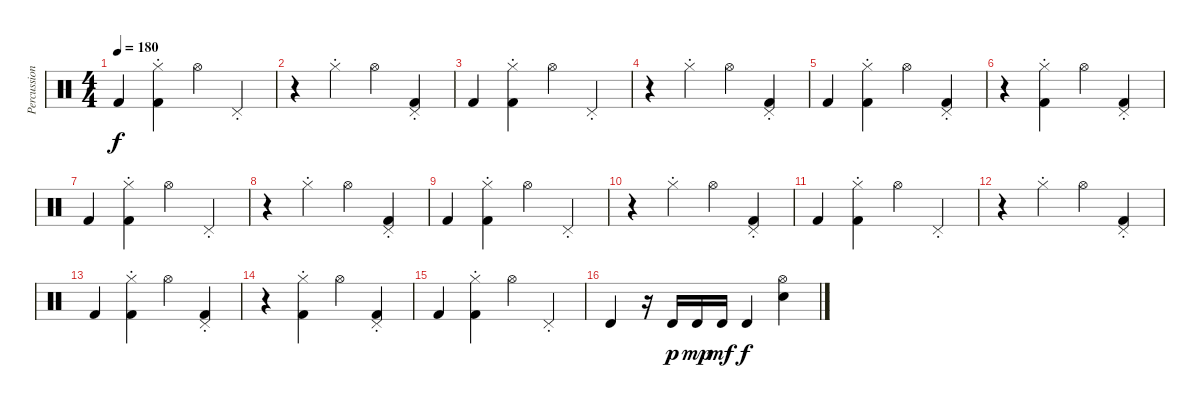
\track ("Percussion" "Percussion") {instrument percussion}
\staff {score}
\articulation defaults
\ts (4 4)
\tempo 180
\clef neutral
\ks c "Kick (hit) 2".4{dy f}
("Hi-Hat (closed)"{st} "Kick (hit) 2").4 "Hi-Hat (open)".4 "Pedal Hi-Hat (hit)"{st}.4 |
r.4 "Hi-Hat (closed)"{st}.4 "Hi-Hat (open)".4 ("Pedal Hi-Hat (hit)"{st} "Kick (hit) 2").4 |
"Kick (hit) 2".4 ("Hi-Hat (closed)"{st} "Kick (hit) 2").4 "Hi-Hat (open)".4 "Pedal Hi-Hat (hit)"{st}.4 |
r.4 "Hi-Hat (closed)"{st}.4 "Hi-Hat (open)".4 ("Pedal Hi-Hat (hit)"{st} "Kick (hit) 2").4 |
"Kick (hit) 2".4 ("Hi-Hat (closed)"{st} "Kick (hit) 2").4 "Hi-Hat (open)".4 ("Pedal Hi-Hat (hit)"{st} "Kick (hit) 2").4 |
r.4 ("Hi-Hat (closed)"{st} "Kick (hit) 2").4 "Hi-Hat (open)".4 ("Pedal Hi-Hat (hit)"{st} "Kick (hit) 2").4 |
"Kick (hit) 2".4 ("Hi-Hat (closed)"{st} "Kick (hit) 2").4 "Hi-Hat (open)".4 "Pedal Hi-Hat (hit)"{st}.4 |
r.4 "Hi-Hat (closed)"{st}.4 "Hi-Hat (open)".4 ("Pedal Hi-Hat (hit)"{st} "Kick (hit) 2").4 |
"Kick (hit) 2".4 ("Hi-Hat (closed)"{st} "Kick (hit) 2").4 "Hi-Hat (open)".4 "Pedal Hi-Hat (hit)"{st}.4 |
r.4 "Hi-Hat (closed)"{st}.4 "Hi-Hat (open)".4 ("Pedal Hi-Hat (hit)"{st} "Kick (hit) 2").4 |
"Kick (hit) 2".4 ("Hi-Hat (closed)"{st} "Kick (hit) 2").4 "Hi-Hat (open)".4 "Pedal Hi-Hat (hit)"{st}.4 |
r.4 "Hi-Hat (closed)"{st}.4 "Hi-Hat (open)".4 ("Pedal Hi-Hat (hit)"{st} "Kick (hit) 2").4 |
"Kick (hit) 2".4 ("Hi-Hat (closed)"{st} "Kick (hit) 2").4 "Hi-Hat (open)".4 ("Pedal Hi-Hat (hit)"{st} "Kick (hit) 2").4 |
r.4 ("Hi-Hat (closed)"{st} "Kick (hit) 2").4 "Hi-Hat (open)".4 ("Pedal Hi-Hat (hit)"{st} "Kick (hit) 2").4 |
"Kick (hit) 2".4 ("Hi-Hat (closed)"{st} "Kick (hit) 2").4 "Hi-Hat (open)".4 "Pedal Hi-Hat (hit)"{st}.4 |
"Timbale high (hit)".4 r.16 "Timbale high (hit)".16{dy p} "Timbale high (hit)".16{dy mp} "Timbale high (hit)".16{dy mf} "Timbale high (hit)".4{dy f} ("Electric Snare (hit)" "Hi-Hat (open)").4
